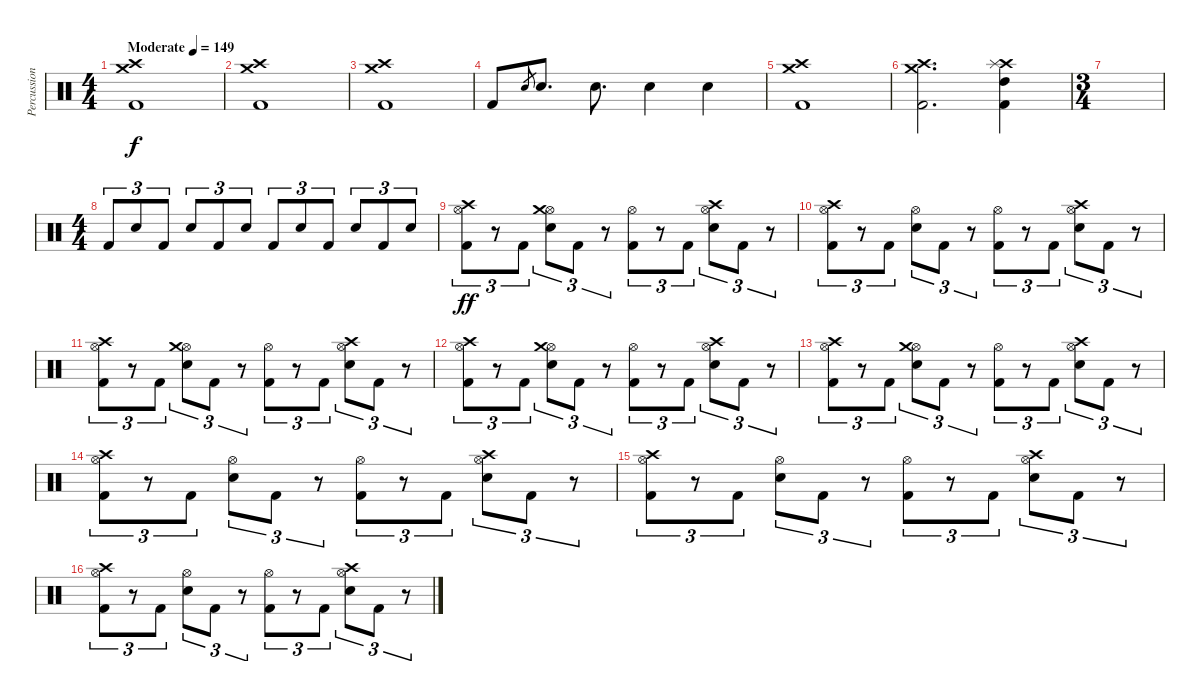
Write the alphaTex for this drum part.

\track ("Percussion" "Percussion") {instrument percussion}
\staff {score}
\articulation defaults
\ts (4 4)
\tempo (149 "Moderate")
\clef neutral
\ks c
("Crash medium (hit)" "Crash high (hit)" "Kick (hit) 2").1{dy f} |
("Crash medium (hit)" "Crash high (hit)" "Kick (hit) 2").1 |
("Crash medium (hit)" "Crash high (hit)" "Kick (hit) 2").1 |
"Kick (hit) 2".8 "Electric Snare (hit)".8{gr} "Electric Snare (hit)".8{d} "Electric Snare (hit)".8{d} "Electric Snare (hit)".4 "Electric Snare (hit)".4 |
("Crash medium (hit)" "Crash high (hit)" "Kick (hit) 2").1 |
("Crash medium (hit)" "Crash high (hit)" "Kick (hit) 2").2{d} ("Kick (hit) 2" "High Tom (hit)" "Crash high (hit)" "Splash (hit)").4 |
\ts (3 4)
|
\ts (4 4)
"Kick (hit) 2".8{tu (3 2)} "Electric Snare (hit)".8{tu (3 2)} "Kick (hit) 2".8{tu (3 2)} "Electric Snare (hit)".8{tu (3 2)} "Kick (hit) 2".8{tu (3 2)} "Electric Snare (hit)".8{tu (3 2)} "Kick (hit) 2".8{tu (3 2)} "Electric Snare (hit)".8{tu (3 2)} "Kick (hit) 2".8{tu (3 2)} "Electric Snare (hit)".8{tu (3 2)} "Kick (hit) 2".8{tu (3 2)} "Electric Snare (hit)".8{tu (3 2)} |
("Kick (hit) 2" "Hi-Hat (open)" "Crash high (hit)").8{tu (3 2) dy ff} r.8{tu (3 2)} "Kick (hit) 2".8{tu (3 2)} ("Electric Snare (hit)" "Hi-Hat (open)" "Crash medium (hit)").8{tu (3 2)} "Kick (hit) 2".8{tu (3 2)} r.8{tu (3 2)} ("Kick (hit) 2" "Hi-Hat (open)").8{tu (3 2)} r.8{tu (3 2)} "Kick (hit) 2".8{tu (3 2)} ("Electric Snare (hit)" "Hi-Hat (open)" "Crash high (hit)").8{tu (3 2)} "Kick (hit) 2".8{tu (3 2)} r.8{tu (3 2)} |
("Kick (hit) 2" "Hi-Hat (open)" "Crash high (hit)").8{tu (3 2)} r.8{tu (3 2)} "Kick (hit) 2".8{tu (3 2)} ("Electric Snare (hit)" "Hi-Hat (open)").8{tu (3 2)} "Kick (hit) 2".8{tu (3 2)} r.8{tu (3 2)} ("Kick (hit) 2" "Hi-Hat (open)").8{tu (3 2)} r.8{tu (3 2)} "Kick (hit) 2".8{tu (3 2)} ("Electric Snare (hit)" "Hi-Hat (open)" "Crash high (hit)").8{tu (3 2)} "Kick (hit) 2".8{tu (3 2)} r.8{tu (3 2)} |
("Kick (hit) 2" "Hi-Hat (open)" "Crash high (hit)").8{tu (3 2)} r.8{tu (3 2)} "Kick (hit) 2".8{tu (3 2)} ("Electric Snare (hit)" "Hi-Hat (open)" "Crash medium (hit)").8{tu (3 2)} "Kick (hit) 2".8{tu (3 2)} r.8{tu (3 2)} ("Kick (hit) 2" "Hi-Hat (open)").8{tu (3 2)} r.8{tu (3 2)} "Kick (hit) 2".8{tu (3 2)} ("Electric Snare (hit)" "Hi-Hat (open)" "Crash high (hit)").8{tu (3 2)} "Kick (hit) 2".8{tu (3 2)} r.8{tu (3 2)} |
("Kick (hit) 2" "Hi-Hat (open)" "Crash high (hit)").8{tu (3 2)} r.8{tu (3 2)} "Kick (hit) 2".8{tu (3 2)} ("Electric Snare (hit)" "Hi-Hat (open)" "Crash medium (hit)").8{tu (3 2)} "Kick (hit) 2".8{tu (3 2)} r.8{tu (3 2)} ("Kick (hit) 2" "Hi-Hat (open)").8{tu (3 2)} r.8{tu (3 2)} "Kick (hit) 2".8{tu (3 2)} ("Electric Snare (hit)" "Hi-Hat (open)" "Crash high (hit)").8{tu (3 2)} "Kick (hit) 2".8{tu (3 2)} r.8{tu (3 2)} |
("Kick (hit) 2" "Hi-Hat (open)" "Crash high (hit)").8{tu (3 2)} r.8{tu (3 2)} "Kick (hit) 2".8{tu (3 2)} ("Electric Snare (hit)" "Hi-Hat (open)" "Crash medium (hit)").8{tu (3 2)} "Kick (hit) 2".8{tu (3 2)} r.8{tu (3 2)} ("Kick (hit) 2" "Hi-Hat (open)").8{tu (3 2)} r.8{tu (3 2)} "Kick (hit) 2".8{tu (3 2)} ("Electric Snare (hit)" "Hi-Hat (open)" "Crash high (hit)").8{tu (3 2)} "Kick (hit) 2".8{tu (3 2)} r.8{tu (3 2)} |
("Kick (hit) 2" "Hi-Hat (open)" "Crash high (hit)").8{tu (3 2)} r.8{tu (3 2)} "Kick (hit) 2".8{tu (3 2)} ("Electric Snare (hit)" "Hi-Hat (open)").8{tu (3 2)} "Kick (hit) 2".8{tu (3 2)} r.8{tu (3 2)} ("Kick (hit) 2" "Hi-Hat (open)").8{tu (3 2)} r.8{tu (3 2)} "Kick (hit) 2".8{tu (3 2)} ("Electric Snare (hit)" "Hi-Hat (open)" "Crash high (hit)").8{tu (3 2)} "Kick (hit) 2".8{tu (3 2)} r.8{tu (3 2)} |
("Kick (hit) 2" "Hi-Hat (open)" "Crash high (hit)").8{tu (3 2)} r.8{tu (3 2)} "Kick (hit) 2".8{tu (3 2)} ("Electric Snare (hit)" "Hi-Hat (open)").8{tu (3 2)} "Kick (hit) 2".8{tu (3 2)} r.8{tu (3 2)} ("Kick (hit) 2" "Hi-Hat (open)").8{tu (3 2)} r.8{tu (3 2)} "Kick (hit) 2".8{tu (3 2)} ("Electric Snare (hit)" "Hi-Hat (open)" "Crash high (hit)").8{tu (3 2)} "Kick (hit) 2".8{tu (3 2)} r.8{tu (3 2)} |
("Kick (hit) 2" "Hi-Hat (open)" "Crash high (hit)").8{tu (3 2)} r.8{tu (3 2)} "Kick (hit) 2".8{tu (3 2)} ("Electric Snare (hit)" "Hi-Hat (open)").8{tu (3 2)} "Kick (hit) 2".8{tu (3 2)} r.8{tu (3 2)} ("Kick (hit) 2" "Hi-Hat (open)").8{tu (3 2)} r.8{tu (3 2)} "Kick (hit) 2".8{tu (3 2)} ("Electric Snare (hit)" "Hi-Hat (open)" "Crash high (hit)").8{tu (3 2)} "Kick (hit) 2".8{tu (3 2)} r.8{tu (3 2)}
